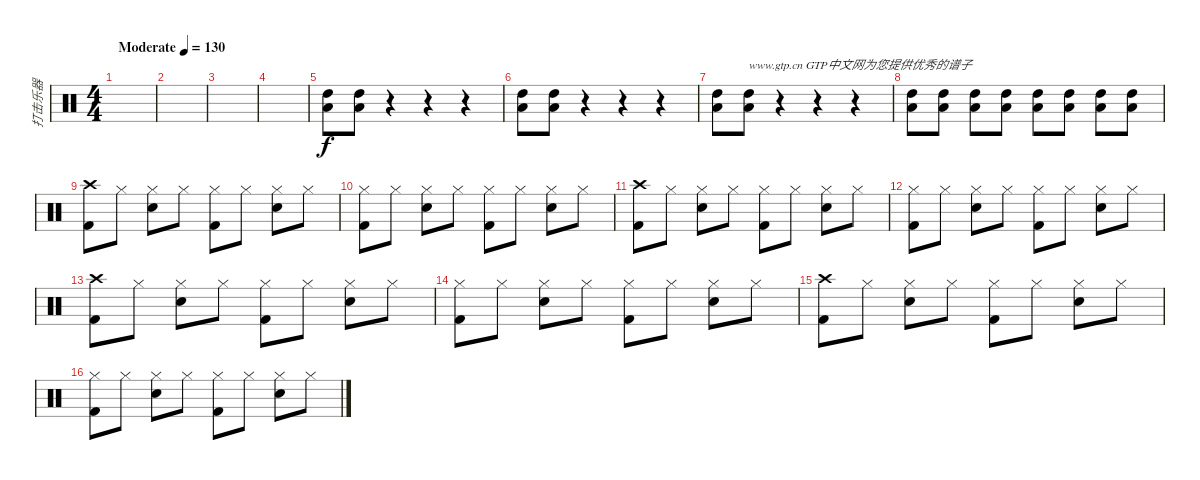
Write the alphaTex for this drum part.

\track ("打击乐器" "打击乐器") {instrument percussion}
\staff {score}
\articulation defaults
\ts (4 4)
\tempo (130 "Moderate")
\clef neutral
\ks c
|
|
|
|
("High Tom (hit)" "Low Tom (hit)").8 ("High Tom (hit)" "Low Tom (hit)").8 r.4 r.4 r.4 |
("High Tom (hit)" "Low Tom (hit)").8 ("High Tom (hit)" "Low Tom (hit)").8 r.4 r.4 r.4 |
("High Tom (hit)" "Low Tom (hit)").8 ("High Tom (hit)" "Low Tom (hit)").8{txt "www.gtp.cn GTP中文网为您提供优秀的谱子"} r.4 r.4 r.4 |
("High Tom (hit)" "Low Tom (hit)").8 ("High Tom (hit)" "Low Tom (hit)").8 ("High Tom (hit)" "Low Tom (hit)").8 ("High Tom (hit)" "Low Tom (hit)").8 ("High Tom (hit)" "Low Tom (hit)").8 ("High Tom (hit)" "Low Tom (hit)").8 ("High Tom (hit)" "Low Tom (hit)").8 ("High Tom (hit)" "Low Tom (hit)").8 |
("Kick (hit) 2" "Crash high (hit)").8 "Hi-Hat (closed)".8 ("Snare (hit) 2" "Hi-Hat (closed)").8 "Hi-Hat (closed)".8 ("Kick (hit) 2" "Hi-Hat (closed)").8 "Hi-Hat (closed)".8 ("Snare (hit) 2" "Hi-Hat (closed)").8 "Hi-Hat (closed)".8 |
("Kick (hit) 2" "Hi-Hat (closed)").8 "Hi-Hat (closed)".8 ("Snare (hit) 2" "Hi-Hat (closed)").8 "Hi-Hat (closed)".8 ("Kick (hit) 2" "Hi-Hat (closed)").8 "Hi-Hat (closed)".8 ("Snare (hit) 2" "Hi-Hat (closed)").8 "Hi-Hat (closed)".8 |
("Kick (hit) 2" "Crash high (hit)").8 "Hi-Hat (closed)".8 ("Snare (hit) 2" "Hi-Hat (closed)").8 "Hi-Hat (closed)".8 ("Kick (hit) 2" "Hi-Hat (closed)").8 "Hi-Hat (closed)".8 ("Snare (hit) 2" "Hi-Hat (closed)").8 "Hi-Hat (closed)".8 |
("Kick (hit) 2" "Hi-Hat (closed)").8 "Hi-Hat (closed)".8 ("Snare (hit) 2" "Hi-Hat (closed)").8 "Hi-Hat (closed)".8 ("Kick (hit) 2" "Hi-Hat (closed)").8 "Hi-Hat (closed)".8 ("Snare (hit) 2" "Hi-Hat (closed)").8 "Hi-Hat (closed)".8 |
("Kick (hit) 2" "Crash high (hit)").8 "Hi-Hat (closed)".8 ("Snare (hit) 2" "Hi-Hat (closed)").8 "Hi-Hat (closed)".8 ("Kick (hit) 2" "Hi-Hat (closed)").8 "Hi-Hat (closed)".8 ("Snare (hit) 2" "Hi-Hat (closed)").8 "Hi-Hat (closed)".8 |
("Kick (hit) 2" "Hi-Hat (closed)").8 "Hi-Hat (closed)".8 ("Snare (hit) 2" "Hi-Hat (closed)").8 "Hi-Hat (closed)".8 ("Kick (hit) 2" "Hi-Hat (closed)").8 "Hi-Hat (closed)".8 ("Snare (hit) 2" "Hi-Hat (closed)").8 "Hi-Hat (closed)".8 |
("Kick (hit) 2" "Crash high (hit)").8 "Hi-Hat (closed)".8 ("Snare (hit) 2" "Hi-Hat (closed)").8 "Hi-Hat (closed)".8 ("Kick (hit) 2" "Hi-Hat (closed)").8 "Hi-Hat (closed)".8 ("Snare (hit) 2" "Hi-Hat (closed)").8 "Hi-Hat (closed)".8 |
("Kick (hit) 2" "Hi-Hat (closed)").8 "Hi-Hat (closed)".8 ("Snare (hit) 2" "Hi-Hat (closed)").8 "Hi-Hat (closed)".8 ("Kick (hit) 2" "Hi-Hat (closed)").8 "Hi-Hat (closed)".8 ("Snare (hit) 2" "Hi-Hat (closed)").8 "Hi-Hat (closed)".8
